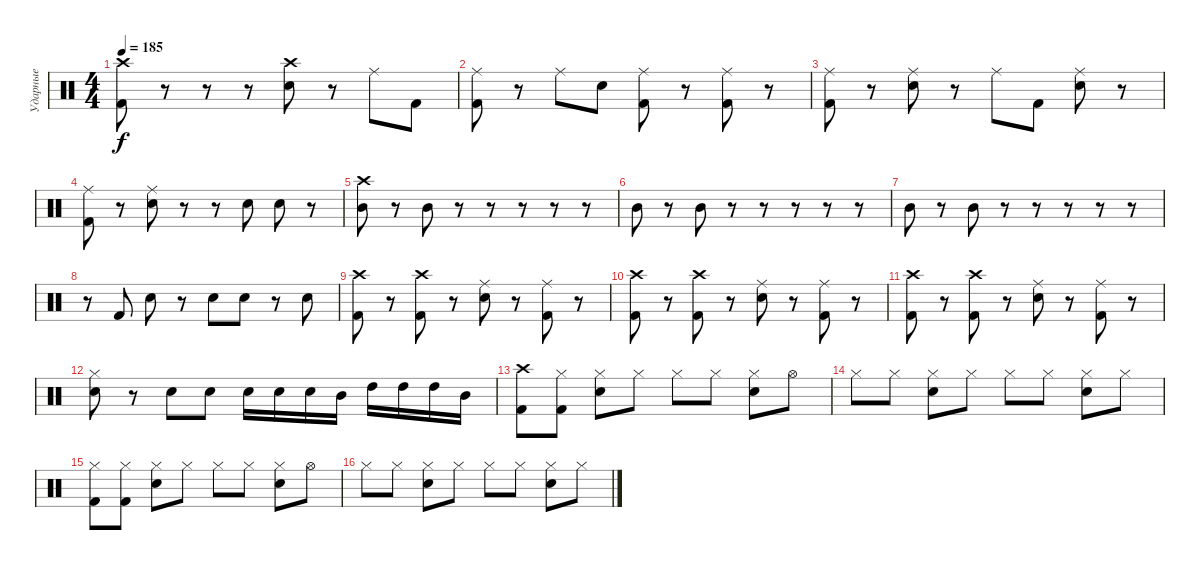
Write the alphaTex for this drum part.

\track ("Ударные" "Ударные") {instrument percussion}
\staff {score}
\articulation defaults
\ts (4 4)
\tempo 185
\clef neutral
\ks c
("Kick (hit) 2" "Crash high (hit)").8{dy f} r.8 r.8 r.8 ("Electric Snare (hit)" "Crash high (hit)").8 r.8 "Ride (middle)".8 "Kick (hit) 2".8 |
("Kick (hit) 2" "Ride (middle)").8 r.8 "Ride (middle)".8 "Electric Snare (hit)".8 ("Kick (hit) 2" "Ride (middle)").8 r.8 ("Kick (hit) 2" "Ride (middle)").8 r.8 |
("Kick (hit) 2" "Ride (middle)").8 r.8 ("Electric Snare (hit)" "Ride (middle)").8 r.8 "Ride (middle)".8 "Kick (hit) 2".8 ("Electric Snare (hit)" "Ride (middle)").8 r.8 |
("Kick (hit) 2" "Ride (middle)").8 r.8 ("Electric Snare (hit)" "Ride (middle)").8 r.8 r.8 "Electric Snare (hit)".8 "Electric Snare (hit)".8 r.8 |
("Mid Tom (hit)" "Crash high (hit)").8 r.8 "Mid Tom (hit)".8 r.8 r.8 r.8 r.8 r.8 |
"Mid Tom (hit)".8 r.8 "Mid Tom (hit)".8 r.8 r.8 r.8 r.8 r.8 |
"Mid Tom (hit)".8 r.8 "Mid Tom (hit)".8 r.8 r.8 r.8 r.8 r.8 |
r.8 "Kick (hit) 2".8 "Electric Snare (hit)".8 r.8 "Electric Snare (hit)".8 "Electric Snare (hit)".8 r.8 "Electric Snare (hit)".8 |
("Kick (hit) 2" "Crash high (hit)").8 r.8 ("Kick (hit) 2" "Crash high (hit)").8 r.8 ("Electric Snare (hit)" "Ride (middle)").8 r.8 ("Kick (hit) 2" "Ride (middle)").8 r.8 |
("Kick (hit) 2" "Crash high (hit)").8 r.8 ("Kick (hit) 2" "Crash high (hit)").8 r.8 ("Electric Snare (hit)" "Ride (middle)").8 r.8 ("Kick (hit) 2" "Ride (middle)").8 r.8 |
("Kick (hit) 2" "Crash high (hit)").8 r.8 ("Kick (hit) 2" "Crash high (hit)").8 r.8 ("Electric Snare (hit)" "Ride (middle)").8 r.8 ("Kick (hit) 2" "Ride (middle)").8 r.8 |
("Electric Snare (hit)" "Hi-Hat (closed)").8 r.8 "Electric Snare (hit)".8 "Electric Snare (hit)".8 "Electric Snare (hit)".16 "Electric Snare (hit)".16 "Electric Snare (hit)".16 "Mid Tom (hit)".16 "High Tom (hit)".16 "High Tom (hit)".16 "High Tom (hit)".16 "Mid Tom (hit)".16 |
("Kick (hit) 2" "Crash high (hit)").8 ("Kick (hit) 2" "Hi-Hat (closed)").8 ("Electric Snare (hit)" "Hi-Hat (closed)").8 "Hi-Hat (closed)".8 "Hi-Hat (closed)".8 "Hi-Hat (closed)".8 ("Electric Snare (hit)" "Hi-Hat (closed)").8 "Hi-Hat (open)".8 |
"Hi-Hat (closed)".8 "Hi-Hat (closed)".8 ("Electric Snare (hit)" "Hi-Hat (closed)").8 "Hi-Hat (closed)".8 "Hi-Hat (closed)".8 "Hi-Hat (closed)".8 ("Electric Snare (hit)" "Hi-Hat (closed)").8 "Hi-Hat (closed)".8 |
("Kick (hit) 2" "Hi-Hat (closed)").8 ("Kick (hit) 2" "Hi-Hat (closed)").8 ("Electric Snare (hit)" "Hi-Hat (closed)").8 "Hi-Hat (closed)".8 "Hi-Hat (closed)".8 "Hi-Hat (closed)".8 ("Electric Snare (hit)" "Hi-Hat (closed)").8 "Hi-Hat (open)".8 |
"Hi-Hat (closed)".8 "Hi-Hat (closed)".8 ("Electric Snare (hit)" "Hi-Hat (closed)").8 "Hi-Hat (closed)".8 "Hi-Hat (closed)".8 "Hi-Hat (closed)".8 ("Electric Snare (hit)" "Hi-Hat (closed)").8 "Hi-Hat (closed)".8
